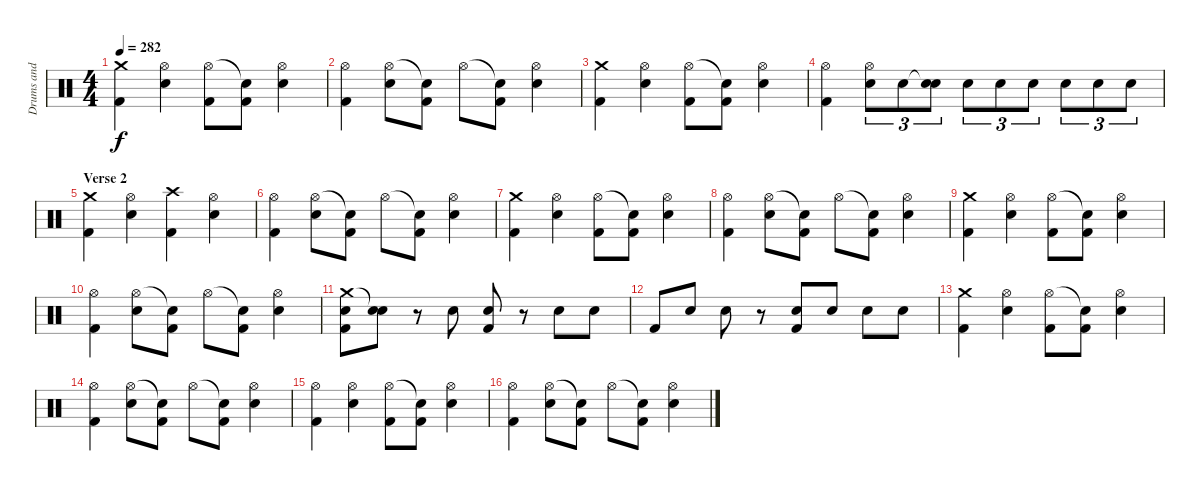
\track ("Drums and Percussion" "Drums and ") {instrument percussion}
\staff {score}
\articulation defaults
\ts (4 4)
\tempo 282
\clef neutral
\ks c
("Crash medium (hit)" "Kick (hit) 2").4{dy f} ("Hi-Hat (open)" "Snare (hit) 2").4 ("Hi-Hat (open)" "Kick (hit) 2").8 ("Snare (hit)"{t} "Kick (hit) 2").8 ("Hi-Hat (open)" "Snare (hit) 2").4 |
("Hi-Hat (open)" "Kick (hit) 2").4 ("Hi-Hat (open)" "Snare (hit) 2").8 ("Snare (hit)"{t} "Kick (hit) 2").8 "Hi-Hat (open)".8 ("Snare (hit)"{t} "Kick (hit) 2").8 ("Hi-Hat (open)" "Snare (hit) 2").4 |
("Crash medium (hit)" "Kick (hit) 2").4 ("Hi-Hat (open)" "Snare (hit) 2").4 ("Hi-Hat (open)" "Kick (hit) 2").8 ("Snare (hit)"{t} "Kick (hit) 2").8 ("Hi-Hat (open)" "Snare (hit) 2").4 |
("Hi-Hat (open)" "Kick (hit) 2").4 ("Hi-Hat (open)" "Snare (hit) 2").8{tu (3 2)} "Snare (hit) 2".8{tu (3 2)} ("Snare (hit)"{t} "Snare (hit) 2").8{tu (3 2)} "Snare (hit) 2".8{tu (3 2)} "Snare (hit) 2".8{tu (3 2)} "Snare (hit) 2".8{tu (3 2)} "Snare (hit) 2".8{tu (3 2)} "Snare (hit) 2".8{tu (3 2)} "Snare (hit) 2".8{tu (3 2)} |
\section ("" "Verse 2")
("Crash medium (hit)" "Kick (hit) 2").4 ("Hi-Hat (open)" "Snare (hit) 2").4 ("Crash high (hit)" "Kick (hit) 2").4 ("Hi-Hat (open)" "Snare (hit) 2").4 |
("Hi-Hat (open)" "Kick (hit) 2").4 ("Hi-Hat (open)" "Snare (hit) 2").8 ("Snare (hit)"{t} "Kick (hit) 2").8 "Hi-Hat (open)".8 ("Snare (hit)"{t} "Kick (hit) 2").8 ("Hi-Hat (open)" "Snare (hit) 2").4 |
("Crash medium (hit)" "Kick (hit) 2").4 ("Hi-Hat (open)" "Snare (hit) 2").4 ("Hi-Hat (open)" "Kick (hit) 2").8 ("Snare (hit)"{t} "Kick (hit) 2").8 ("Hi-Hat (open)" "Snare (hit) 2").4 |
("Hi-Hat (open)" "Kick (hit) 2").4 ("Hi-Hat (open)" "Snare (hit) 2").8 ("Snare (hit)"{t} "Kick (hit) 2").8 "Hi-Hat (open)".8 ("Snare (hit)"{t} "Kick (hit) 2").8 ("Hi-Hat (open)" "Snare (hit) 2").4 |
("Crash medium (hit)" "Kick (hit) 2").4 ("Hi-Hat (open)" "Snare (hit) 2").4 ("Hi-Hat (open)" "Kick (hit) 2").8 ("Snare (hit)"{t} "Kick (hit) 2").8 ("Hi-Hat (open)" "Snare (hit) 2").4 |
("Hi-Hat (open)" "Kick (hit) 2").4 ("Hi-Hat (open)" "Snare (hit) 2").8 ("Snare (hit)"{t} "Kick (hit) 2").8 "Hi-Hat (open)".8 ("Snare (hit)"{t} "Kick (hit) 2").8 ("Hi-Hat (open)" "Snare (hit) 2").4 |
("Crash medium (hit)" "Snare (hit) 2" "Kick (hit) 2").8 ("Snare (hit)"{t} "Snare (hit) 2").8 r.8 "Snare (hit) 2".8 ("Snare (hit) 2" "Kick (hit) 2").8 r.8 "Snare (hit) 2".8 "Snare (hit) 2".8 |
"Kick (hit) 2".8 "Snare (hit) 2".8 "Snare (hit) 2".8 r.8 ("Snare (hit) 2" "Kick (hit) 2").8 "Snare (hit) 2".8 "Snare (hit) 2".8 "Snare (hit) 2".8 |
("Crash medium (hit)" "Kick (hit) 2").4 ("Hi-Hat (open)" "Snare (hit) 2").4 ("Hi-Hat (open)" "Kick (hit) 2").8 ("Snare (hit)"{t} "Kick (hit) 2").8 ("Hi-Hat (open)" "Snare (hit) 2").4 |
("Hi-Hat (open)" "Kick (hit) 2").4 ("Hi-Hat (open)" "Snare (hit) 2").8 ("Snare (hit)"{t} "Kick (hit) 2").8 "Hi-Hat (open)".8 ("Snare (hit)"{t} "Kick (hit) 2").8 ("Hi-Hat (open)" "Snare (hit) 2").4 |
("Hi-Hat (open)" "Kick (hit) 2").4 ("Hi-Hat (open)" "Snare (hit) 2").4 ("Hi-Hat (open)" "Kick (hit) 2").8 ("Snare (hit)"{t} "Kick (hit) 2").8 ("Hi-Hat (open)" "Snare (hit) 2").4 |
("Hi-Hat (open)" "Kick (hit) 2").4 ("Hi-Hat (open)" "Snare (hit) 2").8 ("Snare (hit)"{t} "Kick (hit) 2").8 "Hi-Hat (open)".8 ("Snare (hit)"{t} "Kick (hit) 2").8 ("Hi-Hat (open)" "Snare (hit) 2").4
